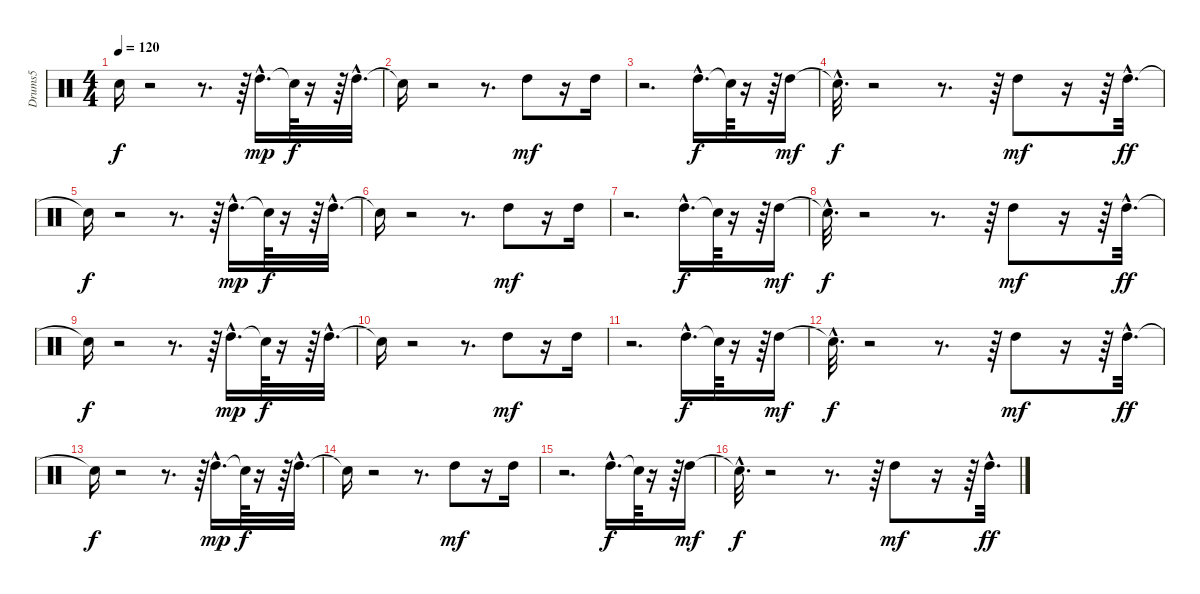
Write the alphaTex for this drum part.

\track ("Drums5" "Drums5") {instrument percussion}
\staff {score}
\articulation defaults
\ts (4 4)
\tempo 120
\clef neutral
\ks c "Snare (hit)"{t}.16{dy f}
r.2 r.8{d} r.64 "High Tom (hit)"{hac}.16{d dy mp} "Snare (hit)"{t}.64{dy f} r.16 r.64 "High Tom (hit)"{hac}.32{d} |
"Snare (hit)"{t}.16 r.2 r.8{d} "High Tom (hit)".8{dy mf} r.16 "High Tom (hit)".16 |
r.2{d} "High Tom (hit)"{hac}.16{d dy f} "Snare (hit)"{t}.64 r.16 r.64 "High Tom (hit)".16{dy mf} |
"Snare (hit)"{hac t}.32{d dy f} r.2 r.8{d} r.64 "High Tom (hit)".8{dy mf} r.16 r.64 "High Tom (hit)"{hac}.32{d dy ff} |
"Snare (hit)"{t}.16{dy f} r.2 r.8{d} r.64 "High Tom (hit)"{hac}.16{d dy mp} "Snare (hit)"{t}.64{dy f} r.16 r.64 "High Tom (hit)"{hac}.32{d} |
"Snare (hit)"{t}.16 r.2 r.8{d} "High Tom (hit)".8{dy mf} r.16 "High Tom (hit)".16 |
r.2{d} "High Tom (hit)"{hac}.16{d dy f} "Snare (hit)"{t}.64 r.16 r.64 "High Tom (hit)".16{dy mf} |
"Snare (hit)"{hac t}.32{d dy f} r.2 r.8{d} r.64 "High Tom (hit)".8{dy mf} r.16 r.64 "High Tom (hit)"{hac}.32{d dy ff} |
"Snare (hit)"{t}.16{dy f} r.2 r.8{d} r.64 "High Tom (hit)"{hac}.16{d dy mp} "Snare (hit)"{t}.64{dy f} r.16 r.64 "High Tom (hit)"{hac}.32{d} |
"Snare (hit)"{t}.16 r.2 r.8{d} "High Tom (hit)".8{dy mf} r.16 "High Tom (hit)".16 |
r.2{d} "High Tom (hit)"{hac}.16{d dy f} "Snare (hit)"{t}.64 r.16 r.64 "High Tom (hit)".16{dy mf} |
"Snare (hit)"{hac t}.32{d dy f} r.2 r.8{d} r.64 "High Tom (hit)".8{dy mf} r.16 r.64 "High Tom (hit)"{hac}.32{d dy ff} |
"Snare (hit)"{t}.16{dy f} r.2 r.8{d} r.64 "High Tom (hit)"{hac}.16{d dy mp} "Snare (hit)"{t}.64{dy f} r.16 r.64 "High Tom (hit)"{hac}.32{d} |
"Snare (hit)"{t}.16 r.2 r.8{d} "High Tom (hit)".8{dy mf} r.16 "High Tom (hit)".16 |
r.2{d} "High Tom (hit)"{hac}.16{d dy f} "Snare (hit)"{t}.64 r.16 r.64 "High Tom (hit)".16{dy mf} |
"Snare (hit)"{hac t}.32{d dy f} r.2 r.8{d} r.64 "High Tom (hit)".8{dy mf} r.16 r.64 "High Tom (hit)"{hac}.32{d dy ff}
